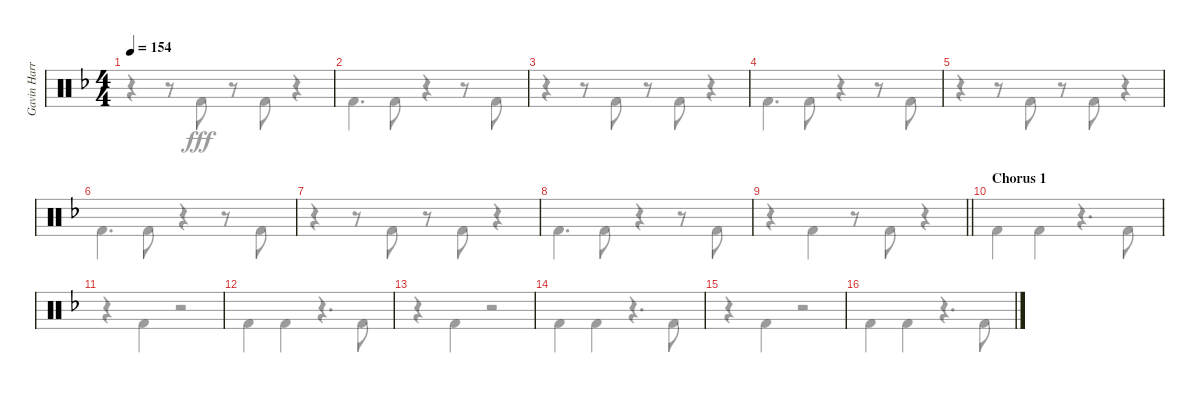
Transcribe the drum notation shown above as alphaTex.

\track ("Gavin Harrison Bass Pedal" "Gavin Harr") {instrument percussion}
\staff {score}
\articulation defaults
\voice
\ts (4 4)
\tempo 154
\clef neutral
\ks dminor
|
|
|
|
|
|
|
|
\barLineRight lightlight
|
\section ("" "Chorus 1")
|
|
|
|
|
|
\voice
\clef neutral
\ks dminor
r.4{dy fff} r.8 "Kick (hit) 2".8 r.8 "Kick (hit) 2".8 r.4 |
"Kick (hit) 2".4{d} "Kick (hit) 2".8 r.4 r.8 "Kick (hit) 2".8 |
r.4 r.8 "Kick (hit) 2".8 r.8 "Kick (hit) 2".8 r.4 |
"Kick (hit) 2".4{d} "Kick (hit) 2".8 r.4 r.8 "Kick (hit) 2".8 |
r.4 r.8 "Kick (hit) 2".8 r.8 "Kick (hit) 2".8 r.4 |
"Kick (hit) 2".4{d} "Kick (hit) 2".8 r.4 r.8 "Kick (hit) 2".8 |
r.4 r.8 "Kick (hit) 2".8 r.8 "Kick (hit) 2".8 r.4 |
"Kick (hit) 2".4{d} "Kick (hit) 2".8 r.4 r.8 "Kick (hit) 2".8 |
\barLineRight lightlight
r.4 "Kick (hit) 2".4 r.8 "Kick (hit) 2".8 r.4 |
"Kick (hit) 2".4 "Kick (hit) 2".4 r.4{d} "Kick (hit) 2".8 |
r.4 "Kick (hit) 2".4 r.2 |
"Kick (hit) 2".4 "Kick (hit) 2".4 r.4{d} "Kick (hit) 2".8 |
r.4 "Kick (hit) 2".4 r.2 |
"Kick (hit) 2".4 "Kick (hit) 2".4 r.4{d} "Kick (hit) 2".8 |
r.4 "Kick (hit) 2".4 r.2 |
"Kick (hit) 2".4 "Kick (hit) 2".4 r.4{d} "Kick (hit) 2".8
